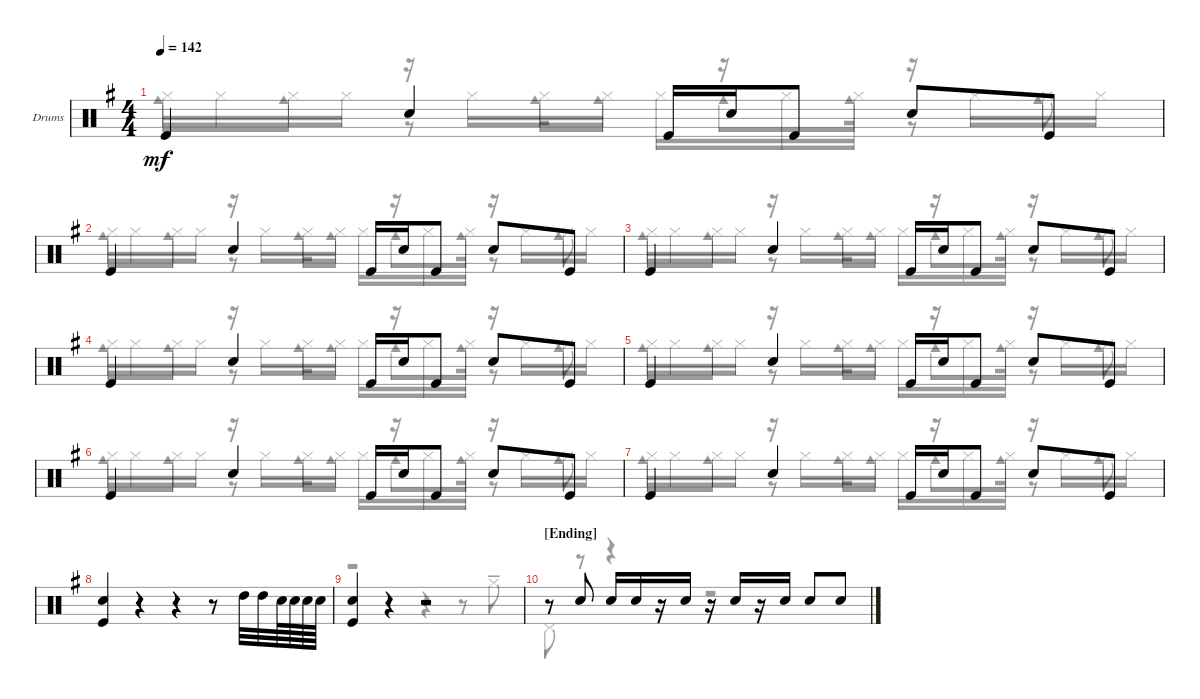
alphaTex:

\bracketExtendMode groupsimilarinstruments
\firstSystemTrackNameOrientation horizontal
\otherSystemsTrackNameOrientation horizontal
\track ("Drumkit" "Drums") {instrument percussion}
\staff {score}
\articulation defaults
\voice
\ts (4 4)
\tempo 142
\clef neutral
\ks eminor "Kick (hit)".4{dy mf} "Snare (hit) 2".4 "Kick (hit)".16 "Snare (hit) 2".16 "Kick (hit)".8 "Snare (hit) 2".8 "Kick (hit)".8
|
"Kick (hit)".4 "Snare (hit) 2".4 "Kick (hit)".16 "Snare (hit) 2".16 "Kick (hit)".8 "Snare (hit) 2".8 "Kick (hit)".8 |
"Kick (hit)".4 "Snare (hit) 2".4 "Kick (hit)".16 "Snare (hit) 2".16 "Kick (hit)".8 "Snare (hit) 2".8 "Kick (hit)".8 |
"Kick (hit)".4 "Snare (hit) 2".4 "Kick (hit)".16 "Snare (hit) 2".16 "Kick (hit)".8 "Snare (hit) 2".8 "Kick (hit)".8 |
"Kick (hit)".4 "Snare (hit) 2".4 "Kick (hit)".16 "Snare (hit) 2".16 "Kick (hit)".8 "Snare (hit) 2".8 "Kick (hit)".8 |
"Kick (hit)".4 "Snare (hit) 2".4 "Kick (hit)".16 "Snare (hit) 2".16 "Kick (hit)".8 "Snare (hit) 2".8 "Kick (hit)".8 |
"Kick (hit)".4 "Snare (hit) 2".4 "Kick (hit)".16 "Snare (hit) 2".16 "Kick (hit)".8 "Snare (hit) 2".8 "Kick (hit)".8 |
("Kick (hit)" "Snare (hit) 2").4 r.4 r.4 r.8 "High Tom (hit)".32 "High Tom (hit)".32 "Snare (hit) 2".64 "Snare (hit) 2".64 "Snare (hit) 2".64 "Snare (hit) 2".64 |
("Kick (hit)" "Snare (hit) 2").4 r.4 r.2 |
\section ("" "[Ending] ")
r.8 "Snare (hit) 2".8 "Snare (hit) 2".16 "Snare (hit) 2".16 r.16 "Snare (hit) 2".16 r.16 "Snare (hit) 2".16 r.16 "Snare (hit) 2".16 "Snare (hit) 2".8 "Snare (hit) 2".8 |
\voice
\clef neutral
\ottava regular
\simile none
\ks eminor "Hi-Hat (closed)".16{dy mf} "Hi-Hat (closed)".16 "Hi-Hat (closed)".16 "Hi-Hat (closed)".16
r.16 "Hi-Hat (closed)".16 "Hi-Hat (closed)".16 "Hi-Hat (closed)".16 "Hi-Hat (closed)".16 r.16 "Hi-Hat (closed)".16 "Hi-Hat (closed)".16 r.16 "Hi-Hat (closed)".16 "Hi-Hat (closed)".16 "Hi-Hat (closed)".16 |
"Hi-Hat (closed)".16 "Hi-Hat (closed)".16 "Hi-Hat (closed)".16 "Hi-Hat (closed)".16 r.16 "Hi-Hat (closed)".16 "Hi-Hat (closed)".16 "Hi-Hat (closed)".16 "Hi-Hat (closed)".16 r.16 "Hi-Hat (closed)".16 "Hi-Hat (closed)".16 r.16 "Hi-Hat (closed)".16 "Hi-Hat (closed)".16 "Hi-Hat (closed)".16 |
"Hi-Hat (closed)".16 "Hi-Hat (closed)".16 "Hi-Hat (closed)".16 "Hi-Hat (closed)".16 r.16 "Hi-Hat (closed)".16 "Hi-Hat (closed)".16 "Hi-Hat (closed)".16 "Hi-Hat (closed)".16 r.16 "Hi-Hat (closed)".16 "Hi-Hat (closed)".16 r.16 "Hi-Hat (closed)".16 "Hi-Hat (closed)".16 "Hi-Hat (closed)".16 |
"Hi-Hat (closed)".16 "Hi-Hat (closed)".16 "Hi-Hat (closed)".16 "Hi-Hat (closed)".16 r.16 "Hi-Hat (closed)".16 "Hi-Hat (closed)".16 "Hi-Hat (closed)".16 "Hi-Hat (closed)".16 r.16 "Hi-Hat (closed)".16 "Hi-Hat (closed)".16 r.16 "Hi-Hat (closed)".16 "Hi-Hat (closed)".16 "Hi-Hat (closed)".16 |
"Hi-Hat (closed)".16 "Hi-Hat (closed)".16 "Hi-Hat (closed)".16 "Hi-Hat (closed)".16 r.16 "Hi-Hat (closed)".16 "Hi-Hat (closed)".16 "Hi-Hat (closed)".16 "Hi-Hat (closed)".16 r.16 "Hi-Hat (closed)".16 "Hi-Hat (closed)".16 r.16 "Hi-Hat (closed)".16 "Hi-Hat (closed)".16 "Hi-Hat (closed)".16 |
"Hi-Hat (closed)".16 "Hi-Hat (closed)".16 "Hi-Hat (closed)".16 "Hi-Hat (closed)".16 r.16 "Hi-Hat (closed)".16 "Hi-Hat (closed)".16 "Hi-Hat (closed)".16 "Hi-Hat (closed)".16 r.16 "Hi-Hat (closed)".16 "Hi-Hat (closed)".16 r.16 "Hi-Hat (closed)".16 "Hi-Hat (closed)".16 "Hi-Hat (closed)".16 |
"Hi-Hat (closed)".16 "Hi-Hat (closed)".16 "Hi-Hat (closed)".16 "Hi-Hat (closed)".16 r.16 "Hi-Hat (closed)".16 "Hi-Hat (closed)".16 "Hi-Hat (closed)".16 "Hi-Hat (closed)".16 r.16 "Hi-Hat (closed)".16 "Hi-Hat (closed)".16 r.16 "Hi-Hat (closed)".16 "Hi-Hat (closed)".16 "Hi-Hat (closed)".16 |
|
r.2 r.4 r.8 "Hi-Hat (closed)"{ten}.8 |
"Pedal Hi-Hat (hit)".8 r.8 r.4 r.2 |
\voice
\clef neutral
\ottava regular
\simile none
\ks eminor "Cowbell medium (hit)".8{dy mf} "Cowbell medium (hit)".8
r.8 "Cowbell medium (hit)".16 "Cowbell medium (hit)".8 "Cowbell medium (hit)".8 "Cowbell medium (hit)".16 r.8 "Cowbell medium (hit)".8 |
"Cowbell medium (hit)".8 "Cowbell medium (hit)".8 r.8 "Cowbell medium (hit)".16 "Cowbell medium (hit)".8 "Cowbell medium (hit)".8 "Cowbell medium (hit)".16 r.8 "Cowbell medium (hit)".8 |
"Cowbell medium (hit)".8 "Cowbell medium (hit)".8 r.8 "Cowbell medium (hit)".16 "Cowbell medium (hit)".8 "Cowbell medium (hit)".8 "Cowbell medium (hit)".16 r.8 "Cowbell medium (hit)".8 |
"Cowbell medium (hit)".8 "Cowbell medium (hit)".8 r.8 "Cowbell medium (hit)".16 "Cowbell medium (hit)".8 "Cowbell medium (hit)".8 "Cowbell medium (hit)".16 r.8 "Cowbell medium (hit)".8 |
"Cowbell medium (hit)".8 "Cowbell medium (hit)".8 r.8 "Cowbell medium (hit)".16 "Cowbell medium (hit)".8 "Cowbell medium (hit)".8 "Cowbell medium (hit)".16 r.8 "Cowbell medium (hit)".8 |
"Cowbell medium (hit)".8 "Cowbell medium (hit)".8 r.8 "Cowbell medium (hit)".16 "Cowbell medium (hit)".8 "Cowbell medium (hit)".8 "Cowbell medium (hit)".16 r.8 "Cowbell medium (hit)".8 |
"Cowbell medium (hit)".8 "Cowbell medium (hit)".8 r.8 "Cowbell medium (hit)".16 "Cowbell medium (hit)".8 "Cowbell medium (hit)".8 "Cowbell medium (hit)".16 r.8 "Cowbell medium (hit)".8 |
|
|
|
